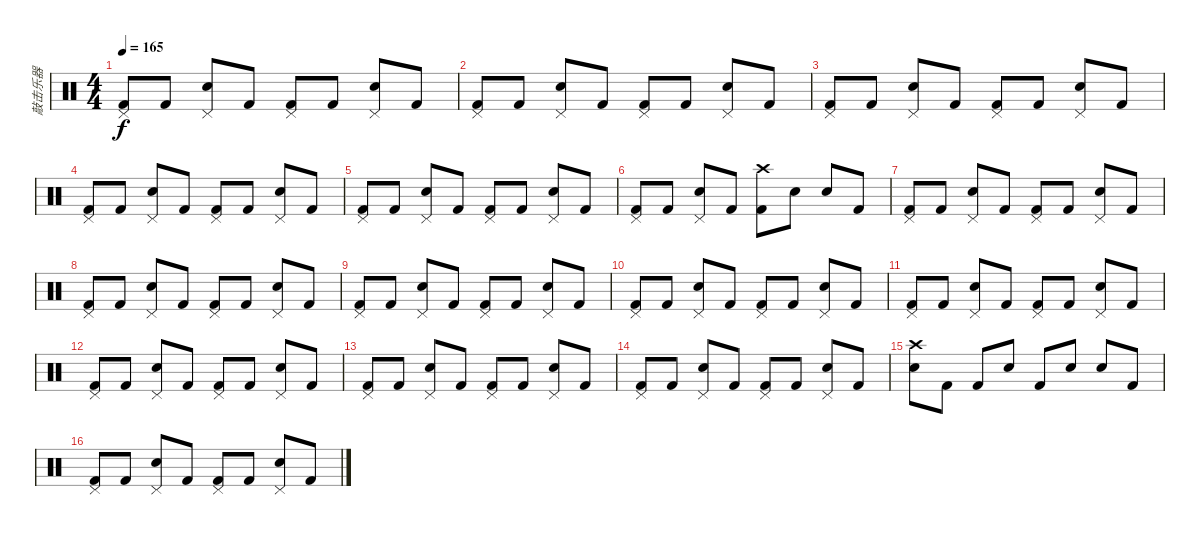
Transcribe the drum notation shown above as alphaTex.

\track ("敲击乐器" "敲击乐器") {instrument percussion}
\staff {score}
\articulation defaults
\ts (4 4)
\tempo 165
\clef neutral
\ks c
("Kick (hit) 2" "Pedal Hi-Hat (hit)").8{dy f} "Kick (hit) 2".8 ("Snare (hit) 2" "Pedal Hi-Hat (hit)").8 "Kick (hit) 2".8 ("Kick (hit) 2" "Pedal Hi-Hat (hit)").8 "Kick (hit) 2".8 ("Snare (hit) 2" "Pedal Hi-Hat (hit)").8 "Kick (hit) 2".8 |
("Kick (hit) 2" "Pedal Hi-Hat (hit)").8 "Kick (hit) 2".8 ("Snare (hit) 2" "Pedal Hi-Hat (hit)").8 "Kick (hit) 2".8 ("Kick (hit) 2" "Pedal Hi-Hat (hit)").8 "Kick (hit) 2".8 ("Snare (hit) 2" "Pedal Hi-Hat (hit)").8 "Kick (hit) 2".8 |
("Kick (hit) 2" "Pedal Hi-Hat (hit)").8 "Kick (hit) 2".8 ("Snare (hit) 2" "Pedal Hi-Hat (hit)").8 "Kick (hit) 2".8 ("Kick (hit) 2" "Pedal Hi-Hat (hit)").8 "Kick (hit) 2".8 ("Snare (hit) 2" "Pedal Hi-Hat (hit)").8 "Kick (hit) 2".8 |
("Kick (hit) 2" "Pedal Hi-Hat (hit)").8 "Kick (hit) 2".8 ("Snare (hit) 2" "Pedal Hi-Hat (hit)").8 "Kick (hit) 2".8 ("Kick (hit) 2" "Pedal Hi-Hat (hit)").8 "Kick (hit) 2".8 ("Snare (hit) 2" "Pedal Hi-Hat (hit)").8 "Kick (hit) 2".8 |
("Kick (hit) 2" "Pedal Hi-Hat (hit)").8 "Kick (hit) 2".8 ("Snare (hit) 2" "Pedal Hi-Hat (hit)").8 "Kick (hit) 2".8 ("Kick (hit) 2" "Pedal Hi-Hat (hit)").8 "Kick (hit) 2".8 ("Snare (hit) 2" "Pedal Hi-Hat (hit)").8 "Kick (hit) 2".8 |
("Kick (hit) 2" "Pedal Hi-Hat (hit)").8 "Kick (hit) 2".8 ("Snare (hit) 2" "Pedal Hi-Hat (hit)").8 "Kick (hit) 2".8 ("Kick (hit) 2" "Crash high (hit)").8 "Snare (hit) 2".8 "Snare (hit) 2".8 "Kick (hit) 2".8 |
("Kick (hit) 2" "Pedal Hi-Hat (hit)").8 "Kick (hit) 2".8 ("Snare (hit) 2" "Pedal Hi-Hat (hit)").8 "Kick (hit) 2".8 ("Kick (hit) 2" "Pedal Hi-Hat (hit)").8 "Kick (hit) 2".8 ("Snare (hit) 2" "Pedal Hi-Hat (hit)").8 "Kick (hit) 2".8 |
("Kick (hit) 2" "Pedal Hi-Hat (hit)").8 "Kick (hit) 2".8 ("Snare (hit) 2" "Pedal Hi-Hat (hit)").8 "Kick (hit) 2".8 ("Kick (hit) 2" "Pedal Hi-Hat (hit)").8 "Kick (hit) 2".8 ("Snare (hit) 2" "Pedal Hi-Hat (hit)").8 "Kick (hit) 2".8 |
("Kick (hit) 2" "Pedal Hi-Hat (hit)").8 "Kick (hit) 2".8 ("Snare (hit) 2" "Pedal Hi-Hat (hit)").8 "Kick (hit) 2".8 ("Kick (hit) 2" "Pedal Hi-Hat (hit)").8 "Kick (hit) 2".8 ("Snare (hit) 2" "Pedal Hi-Hat (hit)").8 "Kick (hit) 2".8 |
("Kick (hit) 2" "Pedal Hi-Hat (hit)").8 "Kick (hit) 2".8 ("Snare (hit) 2" "Pedal Hi-Hat (hit)").8 "Kick (hit) 2".8 ("Kick (hit) 2" "Pedal Hi-Hat (hit)").8 "Kick (hit) 2".8 ("Snare (hit) 2" "Pedal Hi-Hat (hit)").8 "Kick (hit) 2".8 |
("Kick (hit) 2" "Pedal Hi-Hat (hit)").8 "Kick (hit) 2".8 ("Snare (hit) 2" "Pedal Hi-Hat (hit)").8 "Kick (hit) 2".8 ("Kick (hit) 2" "Pedal Hi-Hat (hit)").8 "Kick (hit) 2".8 ("Snare (hit) 2" "Pedal Hi-Hat (hit)").8 "Kick (hit) 2".8 |
("Kick (hit) 2" "Pedal Hi-Hat (hit)").8 "Kick (hit) 2".8 ("Snare (hit) 2" "Pedal Hi-Hat (hit)").8 "Kick (hit) 2".8 ("Kick (hit) 2" "Pedal Hi-Hat (hit)").8 "Kick (hit) 2".8 ("Snare (hit) 2" "Pedal Hi-Hat (hit)").8 "Kick (hit) 2".8 |
("Kick (hit) 2" "Pedal Hi-Hat (hit)").8 "Kick (hit) 2".8 ("Snare (hit) 2" "Pedal Hi-Hat (hit)").8 "Kick (hit) 2".8 ("Kick (hit) 2" "Pedal Hi-Hat (hit)").8 "Kick (hit) 2".8 ("Snare (hit) 2" "Pedal Hi-Hat (hit)").8 "Kick (hit) 2".8 |
("Kick (hit) 2" "Pedal Hi-Hat (hit)").8 "Kick (hit) 2".8 ("Snare (hit) 2" "Pedal Hi-Hat (hit)").8 "Kick (hit) 2".8 ("Kick (hit) 2" "Pedal Hi-Hat (hit)").8 "Kick (hit) 2".8 ("Snare (hit) 2" "Pedal Hi-Hat (hit)").8 "Kick (hit) 2".8 |
("Snare (hit) 2" "Crash high (hit)").8 "Kick (hit) 2".8 "Kick (hit) 2".8 "Snare (hit) 2".8 "Kick (hit) 2".8 "Snare (hit) 2".8 "Snare (hit) 2".8 "Kick (hit) 2".8 |
("Kick (hit) 2" "Pedal Hi-Hat (hit)").8 "Kick (hit) 2".8 ("Snare (hit) 2" "Pedal Hi-Hat (hit)").8 "Kick (hit) 2".8 ("Kick (hit) 2" "Pedal Hi-Hat (hit)").8 "Kick (hit) 2".8 ("Snare (hit) 2" "Pedal Hi-Hat (hit)").8 "Kick (hit) 2".8
